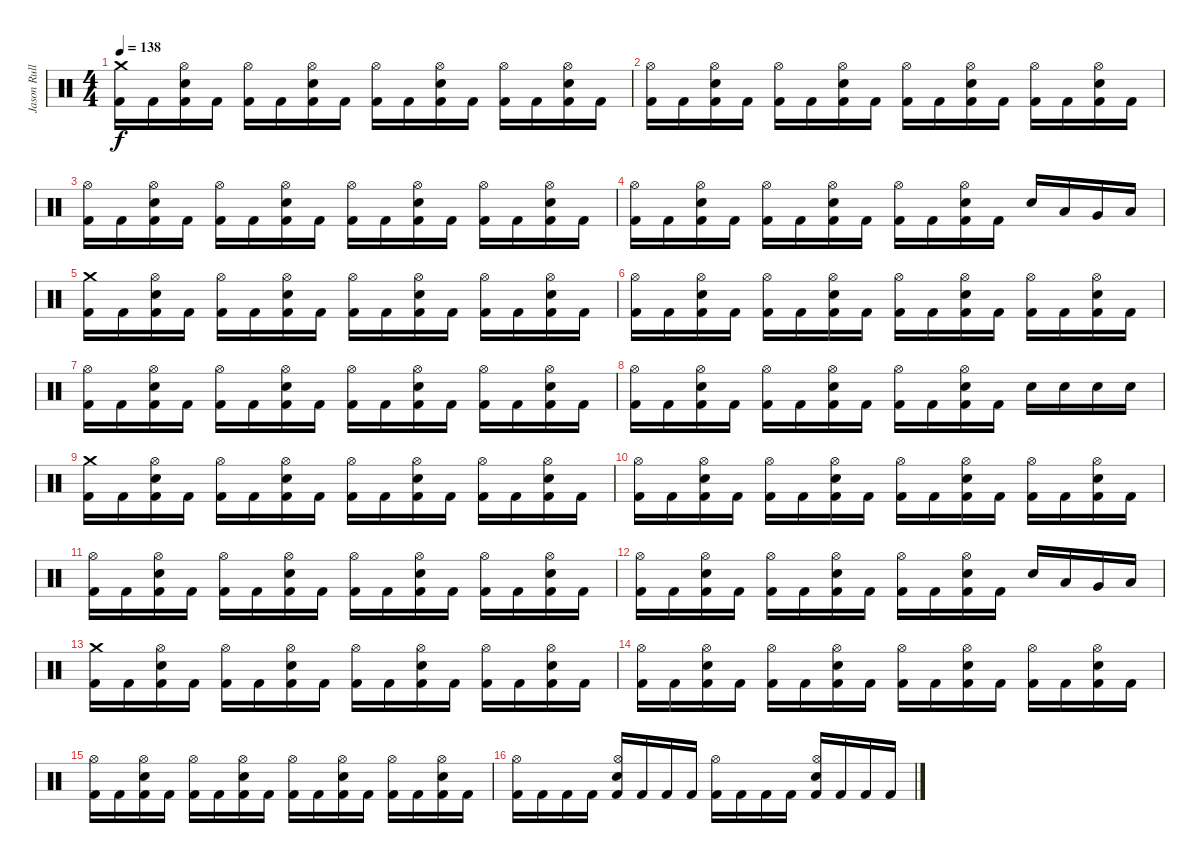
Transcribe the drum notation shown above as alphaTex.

\track ("Jason Rullo" "Jason Rull") {instrument percussion}
\staff {score}
\articulation defaults
\ts (4 4)
\tempo 138
\clef neutral
\ks c
("Crash medium (hit)" "Kick (hit) 2").16{dy f} "Kick (hit) 2".16 ("Hi-Hat (open)" "Electric Snare (hit)" "Kick (hit) 2").16 "Kick (hit) 2".16 ("Hi-Hat (open)" "Kick (hit) 2").16 "Kick (hit) 2".16 ("Hi-Hat (open)" "Electric Snare (hit)" "Kick (hit) 2").16 "Kick (hit) 2".16 ("Hi-Hat (open)" "Kick (hit) 2").16 "Kick (hit) 2".16 ("Hi-Hat (open)" "Electric Snare (hit)" "Kick (hit) 2").16 "Kick (hit) 2".16 ("Hi-Hat (open)" "Kick (hit) 2").16 "Kick (hit) 2".16 ("Hi-Hat (open)" "Electric Snare (hit)" "Kick (hit) 2").16 "Kick (hit) 2".16 |
("Hi-Hat (open)" "Kick (hit) 2").16 "Kick (hit) 2".16 ("Hi-Hat (open)" "Electric Snare (hit)" "Kick (hit) 2").16 "Kick (hit) 2".16 ("Hi-Hat (open)" "Kick (hit) 2").16 "Kick (hit) 2".16 ("Hi-Hat (open)" "Electric Snare (hit)" "Kick (hit) 2").16 "Kick (hit) 2".16 ("Hi-Hat (open)" "Kick (hit) 2").16 "Kick (hit) 2".16 ("Hi-Hat (open)" "Electric Snare (hit)" "Kick (hit) 2").16 "Kick (hit) 2".16 ("Hi-Hat (open)" "Kick (hit) 2").16 "Kick (hit) 2".16 ("Hi-Hat (open)" "Electric Snare (hit)" "Kick (hit) 2").16 "Kick (hit) 2".16 |
("Hi-Hat (open)" "Kick (hit) 2").16 "Kick (hit) 2".16 ("Hi-Hat (open)" "Electric Snare (hit)" "Kick (hit) 2").16 "Kick (hit) 2".16 ("Hi-Hat (open)" "Kick (hit) 2").16 "Kick (hit) 2".16 ("Hi-Hat (open)" "Electric Snare (hit)" "Kick (hit) 2").16 "Kick (hit) 2".16 ("Hi-Hat (open)" "Kick (hit) 2").16 "Kick (hit) 2".16 ("Hi-Hat (open)" "Electric Snare (hit)" "Kick (hit) 2").16 "Kick (hit) 2".16 ("Hi-Hat (open)" "Kick (hit) 2").16 "Kick (hit) 2".16 ("Hi-Hat (open)" "Electric Snare (hit)" "Kick (hit) 2").16 "Kick (hit) 2".16 |
("Hi-Hat (open)" "Kick (hit) 2").16 "Kick (hit) 2".16 ("Hi-Hat (open)" "Electric Snare (hit)" "Kick (hit) 2").16 "Kick (hit) 2".16 ("Hi-Hat (open)" "Kick (hit) 2").16 "Kick (hit) 2".16 ("Hi-Hat (open)" "Electric Snare (hit)" "Kick (hit) 2").16 "Kick (hit) 2".16 ("Hi-Hat (open)" "Kick (hit) 2").16 "Kick (hit) 2".16 ("Hi-Hat (open)" "Electric Snare (hit)" "Kick (hit) 2").16 "Kick (hit) 2".16 "Electric Snare (hit)".16 "Low Tom (hit)".16 "Very Low Tom (hit)".16 "Low Floor Tom (hit)".16 |
("Crash medium (hit)" "Kick (hit) 2").16 "Kick (hit) 2".16 ("Hi-Hat (open)" "Electric Snare (hit)" "Kick (hit) 2").16 "Kick (hit) 2".16 ("Hi-Hat (open)" "Kick (hit) 2").16 "Kick (hit) 2".16 ("Hi-Hat (open)" "Electric Snare (hit)" "Kick (hit) 2").16 "Kick (hit) 2".16 ("Hi-Hat (open)" "Kick (hit) 2").16 "Kick (hit) 2".16 ("Hi-Hat (open)" "Electric Snare (hit)" "Kick (hit) 2").16 "Kick (hit) 2".16 ("Hi-Hat (open)" "Kick (hit) 2").16 "Kick (hit) 2".16 ("Hi-Hat (open)" "Electric Snare (hit)" "Kick (hit) 2").16 "Kick (hit) 2".16 |
("Hi-Hat (open)" "Kick (hit) 2").16 "Kick (hit) 2".16 ("Hi-Hat (open)" "Electric Snare (hit)" "Kick (hit) 2").16 "Kick (hit) 2".16 ("Hi-Hat (open)" "Kick (hit) 2").16 "Kick (hit) 2".16 ("Hi-Hat (open)" "Electric Snare (hit)" "Kick (hit) 2").16 "Kick (hit) 2".16 ("Hi-Hat (open)" "Kick (hit) 2").16 "Kick (hit) 2".16 ("Hi-Hat (open)" "Electric Snare (hit)" "Kick (hit) 2").16 "Kick (hit) 2".16 ("Hi-Hat (open)" "Kick (hit) 2").16 "Kick (hit) 2".16 ("Hi-Hat (open)" "Electric Snare (hit)" "Kick (hit) 2").16 "Kick (hit) 2".16 |
("Hi-Hat (open)" "Kick (hit) 2").16 "Kick (hit) 2".16 ("Hi-Hat (open)" "Electric Snare (hit)" "Kick (hit) 2").16 "Kick (hit) 2".16 ("Hi-Hat (open)" "Kick (hit) 2").16 "Kick (hit) 2".16 ("Hi-Hat (open)" "Electric Snare (hit)" "Kick (hit) 2").16 "Kick (hit) 2".16 ("Hi-Hat (open)" "Kick (hit) 2").16 "Kick (hit) 2".16 ("Hi-Hat (open)" "Electric Snare (hit)" "Kick (hit) 2").16 "Kick (hit) 2".16 ("Hi-Hat (open)" "Kick (hit) 2").16 "Kick (hit) 2".16 ("Hi-Hat (open)" "Electric Snare (hit)" "Kick (hit) 2").16 "Kick (hit) 2".16 |
("Hi-Hat (open)" "Kick (hit) 2").16 "Kick (hit) 2".16 ("Hi-Hat (open)" "Electric Snare (hit)" "Kick (hit) 2").16 "Kick (hit) 2".16 ("Hi-Hat (open)" "Kick (hit) 2").16 "Kick (hit) 2".16 ("Hi-Hat (open)" "Electric Snare (hit)" "Kick (hit) 2").16 "Kick (hit) 2".16 ("Hi-Hat (open)" "Kick (hit) 2").16 "Kick (hit) 2".16 ("Hi-Hat (open)" "Electric Snare (hit)" "Kick (hit) 2").16 "Kick (hit) 2".16 "Electric Snare (hit)".16 "Electric Snare (hit)".16 "Electric Snare (hit)".16 "Electric Snare (hit)".16 |
("Crash medium (hit)" "Kick (hit) 2").16 "Kick (hit) 2".16 ("Hi-Hat (open)" "Electric Snare (hit)" "Kick (hit) 2").16 "Kick (hit) 2".16 ("Hi-Hat (open)" "Kick (hit) 2").16 "Kick (hit) 2".16 ("Hi-Hat (open)" "Electric Snare (hit)" "Kick (hit) 2").16 "Kick (hit) 2".16 ("Hi-Hat (open)" "Kick (hit) 2").16 "Kick (hit) 2".16 ("Hi-Hat (open)" "Electric Snare (hit)" "Kick (hit) 2").16 "Kick (hit) 2".16 ("Hi-Hat (open)" "Kick (hit) 2").16 "Kick (hit) 2".16 ("Hi-Hat (open)" "Electric Snare (hit)" "Kick (hit) 2").16 "Kick (hit) 2".16 |
("Hi-Hat (open)" "Kick (hit) 2").16 "Kick (hit) 2".16 ("Hi-Hat (open)" "Electric Snare (hit)" "Kick (hit) 2").16 "Kick (hit) 2".16 ("Hi-Hat (open)" "Kick (hit) 2").16 "Kick (hit) 2".16 ("Hi-Hat (open)" "Electric Snare (hit)" "Kick (hit) 2").16 "Kick (hit) 2".16 ("Hi-Hat (open)" "Kick (hit) 2").16 "Kick (hit) 2".16 ("Hi-Hat (open)" "Electric Snare (hit)" "Kick (hit) 2").16 "Kick (hit) 2".16 ("Hi-Hat (open)" "Kick (hit) 2").16 "Kick (hit) 2".16 ("Hi-Hat (open)" "Electric Snare (hit)" "Kick (hit) 2").16 "Kick (hit) 2".16 |
("Hi-Hat (open)" "Kick (hit) 2").16 "Kick (hit) 2".16 ("Hi-Hat (open)" "Electric Snare (hit)" "Kick (hit) 2").16 "Kick (hit) 2".16 ("Hi-Hat (open)" "Kick (hit) 2").16 "Kick (hit) 2".16 ("Hi-Hat (open)" "Electric Snare (hit)" "Kick (hit) 2").16 "Kick (hit) 2".16 ("Hi-Hat (open)" "Kick (hit) 2").16 "Kick (hit) 2".16 ("Hi-Hat (open)" "Electric Snare (hit)" "Kick (hit) 2").16 "Kick (hit) 2".16 ("Hi-Hat (open)" "Kick (hit) 2").16 "Kick (hit) 2".16 ("Hi-Hat (open)" "Electric Snare (hit)" "Kick (hit) 2").16 "Kick (hit) 2".16 |
("Hi-Hat (open)" "Kick (hit) 2").16 "Kick (hit) 2".16 ("Hi-Hat (open)" "Electric Snare (hit)" "Kick (hit) 2").16 "Kick (hit) 2".16 ("Hi-Hat (open)" "Kick (hit) 2").16 "Kick (hit) 2".16 ("Hi-Hat (open)" "Electric Snare (hit)" "Kick (hit) 2").16 "Kick (hit) 2".16 ("Hi-Hat (open)" "Kick (hit) 2").16 "Kick (hit) 2".16 ("Hi-Hat (open)" "Electric Snare (hit)" "Kick (hit) 2").16 "Kick (hit) 2".16 "Electric Snare (hit)".16 "Low Tom (hit)".16 "Very Low Tom (hit)".16 "Low Floor Tom (hit)".16 |
("Crash medium (hit)" "Kick (hit) 2").16 "Kick (hit) 2".16 ("Hi-Hat (open)" "Electric Snare (hit)" "Kick (hit) 2").16 "Kick (hit) 2".16 ("Hi-Hat (open)" "Kick (hit) 2").16 "Kick (hit) 2".16 ("Hi-Hat (open)" "Electric Snare (hit)" "Kick (hit) 2").16 "Kick (hit) 2".16 ("Hi-Hat (open)" "Kick (hit) 2").16 "Kick (hit) 2".16 ("Hi-Hat (open)" "Electric Snare (hit)" "Kick (hit) 2").16 "Kick (hit) 2".16 ("Hi-Hat (open)" "Kick (hit) 2").16 "Kick (hit) 2".16 ("Hi-Hat (open)" "Electric Snare (hit)" "Kick (hit) 2").16 "Kick (hit) 2".16 |
("Hi-Hat (open)" "Kick (hit) 2").16 "Kick (hit) 2".16 ("Hi-Hat (open)" "Electric Snare (hit)" "Kick (hit) 2").16 "Kick (hit) 2".16 ("Hi-Hat (open)" "Kick (hit) 2").16 "Kick (hit) 2".16 ("Hi-Hat (open)" "Electric Snare (hit)" "Kick (hit) 2").16 "Kick (hit) 2".16 ("Hi-Hat (open)" "Kick (hit) 2").16 "Kick (hit) 2".16 ("Hi-Hat (open)" "Electric Snare (hit)" "Kick (hit) 2").16 "Kick (hit) 2".16 ("Hi-Hat (open)" "Kick (hit) 2").16 "Kick (hit) 2".16 ("Hi-Hat (open)" "Electric Snare (hit)" "Kick (hit) 2").16 "Kick (hit) 2".16 |
("Hi-Hat (open)" "Kick (hit) 2").16 "Kick (hit) 2".16 ("Hi-Hat (open)" "Electric Snare (hit)" "Kick (hit) 2").16 "Kick (hit) 2".16 ("Hi-Hat (open)" "Kick (hit) 2").16 "Kick (hit) 2".16 ("Hi-Hat (open)" "Electric Snare (hit)" "Kick (hit) 2").16 "Kick (hit) 2".16 ("Hi-Hat (open)" "Kick (hit) 2").16 "Kick (hit) 2".16 ("Hi-Hat (open)" "Electric Snare (hit)" "Kick (hit) 2").16 "Kick (hit) 2".16 ("Hi-Hat (open)" "Kick (hit) 2").16 "Kick (hit) 2".16 ("Hi-Hat (open)" "Electric Snare (hit)" "Kick (hit) 2").16 "Kick (hit) 2".16 |
("Hi-Hat (open)" "Kick (hit) 2").16 "Kick (hit) 2".16 "Kick (hit) 2".16 "Kick (hit) 2".16 ("Electric Snare (hit)" "Hi-Hat (open)" "Kick (hit) 2").16 "Kick (hit) 2".16 "Kick (hit) 2".16 "Kick (hit) 2".16 ("Hi-Hat (open)" "Kick (hit) 2").16 "Kick (hit) 2".16 "Kick (hit) 2".16 "Kick (hit) 2".16 ("Hi-Hat (open)" "Kick (hit) 2" "Electric Snare (hit)").16 "Kick (hit) 2".16 "Kick (hit) 2".16 "Kick (hit) 2".16
